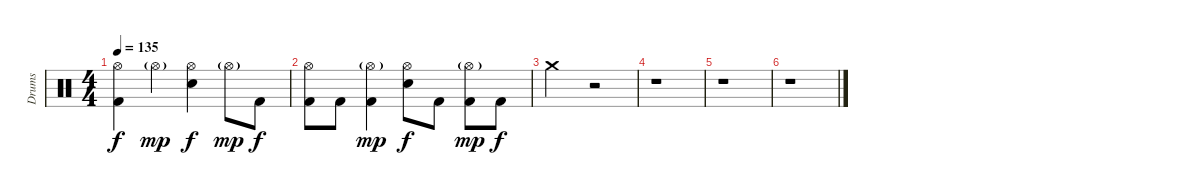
\track ("Drums" "Drums") {instrument percussion}
\staff {score}
\articulation defaults
\ts (4 4)
\tempo 135
\clef neutral
\ks c
("Hi-Hat (open)" "Kick (hit) 2").4{dy f} "Hi-Hat (open)"{g}.4{dy mp} ("Hi-Hat (open)" "Electric Snare (hit)").4{dy f} "Hi-Hat (open)"{g}.8{dy mp} "Kick (hit) 2".8{dy f} |
("Hi-Hat (open)" "Kick (hit) 2").8 "Kick (hit) 2".8 ("Hi-Hat (open)"{g} "Kick (hit) 2").4{dy mp} ("Hi-Hat (open)" "Electric Snare (hit)").8{dy f} "Kick (hit) 2".8 ("Hi-Hat (open)"{g} "Kick (hit) 2").8{dy mp} "Kick (hit) 2".8{dy f} |
"Crash medium (hit)".2 r.2 |
r.1 |
r.1 |
r.1
